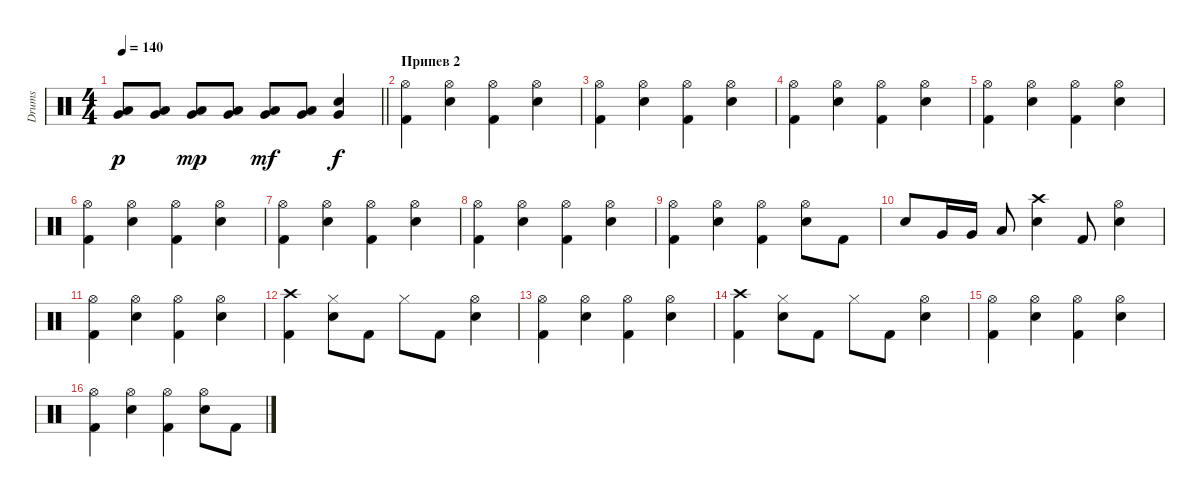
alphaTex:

\track ("Drums" "Drums") {instrument percussion}
\staff {score}
\articulation defaults
\ts (4 4)
\tempo 140
\clef neutral
\barLineRight lightlight
\ks c
("Very Low Tom (hit)" "Low Floor Tom (hit)").8{dy p} ("Very Low Tom (hit)" "Low Floor Tom (hit)").8 ("Very Low Tom (hit)" "Low Floor Tom (hit)").8{dy mp} ("Very Low Tom (hit)" "Low Floor Tom (hit)").8 ("Very Low Tom (hit)" "Low Floor Tom (hit)").8{dy mf} ("Very Low Tom (hit)" "Low Floor Tom (hit)").8 ("Snare (hit) 2" "Very Low Tom (hit)").4{dy f} |
\section ("" "Припев 2")
("Hi-Hat (open)" "Kick (hit) 2").4 ("Hi-Hat (open)" "Snare (hit) 2").4 ("Hi-Hat (open)" "Kick (hit) 2").4 ("Hi-Hat (open)" "Snare (hit) 2").4 |
("Hi-Hat (open)" "Kick (hit) 2").4 ("Hi-Hat (open)" "Snare (hit) 2").4 ("Hi-Hat (open)" "Kick (hit) 2").4 ("Hi-Hat (open)" "Snare (hit) 2").4 |
("Hi-Hat (open)" "Kick (hit) 2").4 ("Hi-Hat (open)" "Snare (hit) 2").4 ("Hi-Hat (open)" "Kick (hit) 2").4 ("Hi-Hat (open)" "Snare (hit) 2").4 |
("Hi-Hat (open)" "Kick (hit) 2").4 ("Hi-Hat (open)" "Snare (hit) 2").4 ("Hi-Hat (open)" "Kick (hit) 2").4 ("Hi-Hat (open)" "Snare (hit) 2").4 |
("Hi-Hat (open)" "Kick (hit) 2").4 ("Hi-Hat (open)" "Snare (hit) 2").4 ("Hi-Hat (open)" "Kick (hit) 2").4 ("Hi-Hat (open)" "Snare (hit) 2").4 |
("Hi-Hat (open)" "Kick (hit) 2").4 ("Hi-Hat (open)" "Snare (hit) 2").4 ("Hi-Hat (open)" "Kick (hit) 2").4 ("Hi-Hat (open)" "Snare (hit) 2").4 |
("Hi-Hat (open)" "Kick (hit) 2").4 ("Hi-Hat (open)" "Snare (hit) 2").4 ("Hi-Hat (open)" "Kick (hit) 2").4 ("Hi-Hat (open)" "Snare (hit) 2").4 |
("Hi-Hat (open)" "Kick (hit) 2").4 ("Hi-Hat (open)" "Snare (hit) 2").4 ("Hi-Hat (open)" "Kick (hit) 2").4 ("Hi-Hat (open)" "Snare (hit) 2").8 "Kick (hit) 2".8 |
"Snare (hit) 2".8 "Very Low Tom (hit)".16 "Very Low Tom (hit)".16 "Low Floor Tom (hit)".8 ("Crash high (hit)" "Snare (hit) 2").4 "Kick (hit) 2".8 ("Hi-Hat (open)" "Snare (hit) 2").4 |
("Hi-Hat (open)" "Kick (hit) 2").4 ("Hi-Hat (open)" "Snare (hit) 2").4 ("Hi-Hat (open)" "Kick (hit) 2").4 ("Hi-Hat (open)" "Snare (hit) 2").4 |
("Crash high (hit)" "Kick (hit) 2").4 ("Hi-Hat (closed)" "Snare (hit) 2").8 "Kick (hit) 2".8 "Hi-Hat (closed)".8 "Kick (hit) 2".8 ("Hi-Hat (open)" "Snare (hit) 2").4 |
("Hi-Hat (open)" "Kick (hit) 2").4 ("Hi-Hat (open)" "Snare (hit) 2").4 ("Hi-Hat (open)" "Kick (hit) 2").4 ("Hi-Hat (open)" "Snare (hit) 2").4 |
("Crash high (hit)" "Kick (hit) 2").4 ("Hi-Hat (closed)" "Snare (hit) 2").8 "Kick (hit) 2".8 "Hi-Hat (closed)".8 "Kick (hit) 2".8 ("Hi-Hat (open)" "Snare (hit) 2").4 |
("Hi-Hat (open)" "Kick (hit) 2").4 ("Hi-Hat (open)" "Snare (hit) 2").4 ("Hi-Hat (open)" "Kick (hit) 2").4 ("Hi-Hat (open)" "Snare (hit) 2").4 |
("Hi-Hat (open)" "Kick (hit) 2").4 ("Hi-Hat (open)" "Snare (hit) 2").4 ("Hi-Hat (open)" "Kick (hit) 2").4 ("Hi-Hat (open)" "Snare (hit) 2").8 "Kick (hit) 2".8
